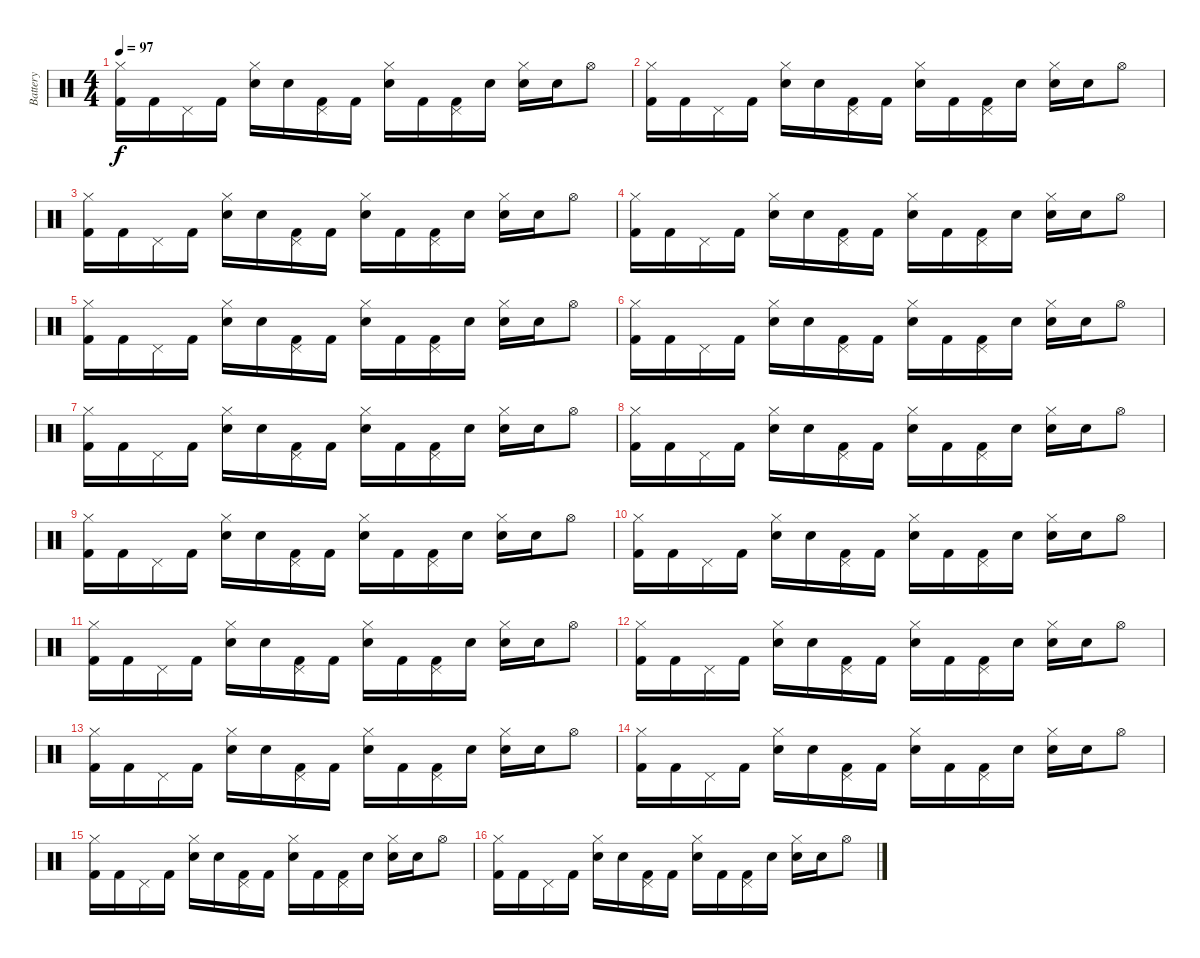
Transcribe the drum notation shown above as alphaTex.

\track ("Battery" "Battery") {instrument percussion}
\staff {score}
\articulation defaults
\ts (4 4)
\tempo 97
\clef neutral
\ks c
("Kick (hit) 2" "Hi-Hat (closed)").16{dy f} "Kick (hit) 2".16 "Pedal Hi-Hat (hit)".16 "Kick (hit) 2".16 ("Snare (hit) 2" "Hi-Hat (closed)").16 "Snare (hit)".16 ("Kick (hit) 2" "Pedal Hi-Hat (hit)").16 "Kick (hit) 2".16 ("Snare (hit)" "Hi-Hat (closed)").16 "Kick (hit) 2".16 ("Kick (hit) 2" "Pedal Hi-Hat (hit)").16 "Snare (hit)".16 ("Snare (hit) 2" "Hi-Hat (closed)").16 "Snare (hit)".16 "Hi-Hat (open)".8 |
("Kick (hit) 2" "Hi-Hat (closed)").16 "Kick (hit) 2".16 "Pedal Hi-Hat (hit)".16 "Kick (hit) 2".16 ("Snare (hit) 2" "Hi-Hat (closed)").16 "Snare (hit)".16 ("Kick (hit) 2" "Pedal Hi-Hat (hit)").16 "Kick (hit) 2".16 ("Snare (hit)" "Hi-Hat (closed)").16 "Kick (hit) 2".16 ("Kick (hit) 2" "Pedal Hi-Hat (hit)").16 "Snare (hit)".16 ("Snare (hit) 2" "Hi-Hat (closed)").16 "Snare (hit)".16 "Hi-Hat (open)".8 |
("Kick (hit) 2" "Hi-Hat (closed)").16 "Kick (hit) 2".16 "Pedal Hi-Hat (hit)".16 "Kick (hit) 2".16 ("Snare (hit) 2" "Hi-Hat (closed)").16 "Snare (hit)".16 ("Kick (hit) 2" "Pedal Hi-Hat (hit)").16 "Kick (hit) 2".16 ("Snare (hit)" "Hi-Hat (closed)").16 "Kick (hit) 2".16 ("Kick (hit) 2" "Pedal Hi-Hat (hit)").16 "Snare (hit)".16 ("Snare (hit) 2" "Hi-Hat (closed)").16 "Snare (hit)".16 "Hi-Hat (open)".8 |
("Kick (hit) 2" "Hi-Hat (closed)").16 "Kick (hit) 2".16 "Pedal Hi-Hat (hit)".16 "Kick (hit) 2".16 ("Snare (hit) 2" "Hi-Hat (closed)").16 "Snare (hit)".16 ("Kick (hit) 2" "Pedal Hi-Hat (hit)").16 "Kick (hit) 2".16 ("Snare (hit)" "Hi-Hat (closed)").16 "Kick (hit) 2".16 ("Kick (hit) 2" "Pedal Hi-Hat (hit)").16 "Snare (hit)".16 ("Snare (hit) 2" "Hi-Hat (closed)").16 "Snare (hit)".16 "Hi-Hat (open)".8 |
("Kick (hit) 2" "Hi-Hat (closed)").16 "Kick (hit) 2".16 "Pedal Hi-Hat (hit)".16 "Kick (hit) 2".16 ("Snare (hit) 2" "Hi-Hat (closed)").16 "Snare (hit)".16 ("Kick (hit) 2" "Pedal Hi-Hat (hit)").16 "Kick (hit) 2".16 ("Snare (hit)" "Hi-Hat (closed)").16 "Kick (hit) 2".16 ("Kick (hit) 2" "Pedal Hi-Hat (hit)").16 "Snare (hit)".16 ("Snare (hit) 2" "Hi-Hat (closed)").16 "Snare (hit)".16 "Hi-Hat (open)".8 |
("Kick (hit) 2" "Hi-Hat (closed)").16 "Kick (hit) 2".16 "Pedal Hi-Hat (hit)".16 "Kick (hit) 2".16 ("Snare (hit) 2" "Hi-Hat (closed)").16 "Snare (hit)".16 ("Kick (hit) 2" "Pedal Hi-Hat (hit)").16 "Kick (hit) 2".16 ("Snare (hit)" "Hi-Hat (closed)").16 "Kick (hit) 2".16 ("Kick (hit) 2" "Pedal Hi-Hat (hit)").16 "Snare (hit)".16 ("Snare (hit) 2" "Hi-Hat (closed)").16 "Snare (hit)".16 "Hi-Hat (open)".8 |
("Kick (hit) 2" "Hi-Hat (closed)").16 "Kick (hit) 2".16 "Pedal Hi-Hat (hit)".16 "Kick (hit) 2".16 ("Snare (hit) 2" "Hi-Hat (closed)").16 "Snare (hit)".16 ("Kick (hit) 2" "Pedal Hi-Hat (hit)").16 "Kick (hit) 2".16 ("Snare (hit)" "Hi-Hat (closed)").16 "Kick (hit) 2".16 ("Kick (hit) 2" "Pedal Hi-Hat (hit)").16 "Snare (hit)".16 ("Snare (hit) 2" "Hi-Hat (closed)").16 "Snare (hit)".16 "Hi-Hat (open)".8 |
("Kick (hit) 2" "Hi-Hat (closed)").16 "Kick (hit) 2".16 "Pedal Hi-Hat (hit)".16 "Kick (hit) 2".16 ("Snare (hit) 2" "Hi-Hat (closed)").16 "Snare (hit)".16 ("Kick (hit) 2" "Pedal Hi-Hat (hit)").16 "Kick (hit) 2".16 ("Snare (hit)" "Hi-Hat (closed)").16 "Kick (hit) 2".16 ("Kick (hit) 2" "Pedal Hi-Hat (hit)").16 "Snare (hit)".16 ("Snare (hit) 2" "Hi-Hat (closed)").16 "Snare (hit)".16 "Hi-Hat (open)".8 |
("Kick (hit) 2" "Hi-Hat (closed)").16 "Kick (hit) 2".16 "Pedal Hi-Hat (hit)".16 "Kick (hit) 2".16 ("Snare (hit) 2" "Hi-Hat (closed)").16 "Snare (hit)".16 ("Kick (hit) 2" "Pedal Hi-Hat (hit)").16 "Kick (hit) 2".16 ("Snare (hit)" "Hi-Hat (closed)").16 "Kick (hit) 2".16 ("Kick (hit) 2" "Pedal Hi-Hat (hit)").16 "Snare (hit)".16 ("Snare (hit) 2" "Hi-Hat (closed)").16 "Snare (hit)".16 "Hi-Hat (open)".8 |
("Kick (hit) 2" "Hi-Hat (closed)").16 "Kick (hit) 2".16 "Pedal Hi-Hat (hit)".16 "Kick (hit) 2".16 ("Snare (hit) 2" "Hi-Hat (closed)").16 "Snare (hit)".16 ("Kick (hit) 2" "Pedal Hi-Hat (hit)").16 "Kick (hit) 2".16 ("Snare (hit)" "Hi-Hat (closed)").16 "Kick (hit) 2".16 ("Kick (hit) 2" "Pedal Hi-Hat (hit)").16 "Snare (hit)".16 ("Snare (hit) 2" "Hi-Hat (closed)").16 "Snare (hit)".16 "Hi-Hat (open)".8 |
("Kick (hit) 2" "Hi-Hat (closed)").16 "Kick (hit) 2".16 "Pedal Hi-Hat (hit)".16 "Kick (hit) 2".16 ("Snare (hit) 2" "Hi-Hat (closed)").16 "Snare (hit)".16 ("Kick (hit) 2" "Pedal Hi-Hat (hit)").16 "Kick (hit) 2".16 ("Snare (hit)" "Hi-Hat (closed)").16 "Kick (hit) 2".16 ("Kick (hit) 2" "Pedal Hi-Hat (hit)").16 "Snare (hit)".16 ("Snare (hit) 2" "Hi-Hat (closed)").16 "Snare (hit)".16 "Hi-Hat (open)".8 |
("Kick (hit) 2" "Hi-Hat (closed)").16 "Kick (hit) 2".16 "Pedal Hi-Hat (hit)".16 "Kick (hit) 2".16 ("Snare (hit) 2" "Hi-Hat (closed)").16 "Snare (hit)".16 ("Kick (hit) 2" "Pedal Hi-Hat (hit)").16 "Kick (hit) 2".16 ("Snare (hit)" "Hi-Hat (closed)").16 "Kick (hit) 2".16 ("Kick (hit) 2" "Pedal Hi-Hat (hit)").16 "Snare (hit)".16 ("Snare (hit) 2" "Hi-Hat (closed)").16 "Snare (hit)".16 "Hi-Hat (open)".8 |
("Kick (hit) 2" "Hi-Hat (closed)").16 "Kick (hit) 2".16 "Pedal Hi-Hat (hit)".16 "Kick (hit) 2".16 ("Snare (hit) 2" "Hi-Hat (closed)").16 "Snare (hit)".16 ("Kick (hit) 2" "Pedal Hi-Hat (hit)").16 "Kick (hit) 2".16 ("Snare (hit)" "Hi-Hat (closed)").16 "Kick (hit) 2".16 ("Kick (hit) 2" "Pedal Hi-Hat (hit)").16 "Snare (hit)".16 ("Snare (hit) 2" "Hi-Hat (closed)").16 "Snare (hit)".16 "Hi-Hat (open)".8 |
("Kick (hit) 2" "Hi-Hat (closed)").16 "Kick (hit) 2".16 "Pedal Hi-Hat (hit)".16 "Kick (hit) 2".16 ("Snare (hit) 2" "Hi-Hat (closed)").16 "Snare (hit)".16 ("Kick (hit) 2" "Pedal Hi-Hat (hit)").16 "Kick (hit) 2".16 ("Snare (hit)" "Hi-Hat (closed)").16 "Kick (hit) 2".16 ("Kick (hit) 2" "Pedal Hi-Hat (hit)").16 "Snare (hit)".16 ("Snare (hit) 2" "Hi-Hat (closed)").16 "Snare (hit)".16 "Hi-Hat (open)".8 |
("Kick (hit) 2" "Hi-Hat (closed)").16 "Kick (hit) 2".16 "Pedal Hi-Hat (hit)".16 "Kick (hit) 2".16 ("Snare (hit) 2" "Hi-Hat (closed)").16 "Snare (hit)".16 ("Kick (hit) 2" "Pedal Hi-Hat (hit)").16 "Kick (hit) 2".16 ("Snare (hit)" "Hi-Hat (closed)").16 "Kick (hit) 2".16 ("Kick (hit) 2" "Pedal Hi-Hat (hit)").16 "Snare (hit)".16 ("Snare (hit) 2" "Hi-Hat (closed)").16 "Snare (hit)".16 "Hi-Hat (open)".8 |
("Kick (hit) 2" "Hi-Hat (closed)").16 "Kick (hit) 2".16 "Pedal Hi-Hat (hit)".16 "Kick (hit) 2".16 ("Snare (hit) 2" "Hi-Hat (closed)").16 "Snare (hit)".16 ("Kick (hit) 2" "Pedal Hi-Hat (hit)").16 "Kick (hit) 2".16 ("Snare (hit)" "Hi-Hat (closed)").16 "Kick (hit) 2".16 ("Kick (hit) 2" "Pedal Hi-Hat (hit)").16 "Snare (hit)".16 ("Snare (hit) 2" "Hi-Hat (closed)").16 "Snare (hit)".16 "Hi-Hat (open)".8
